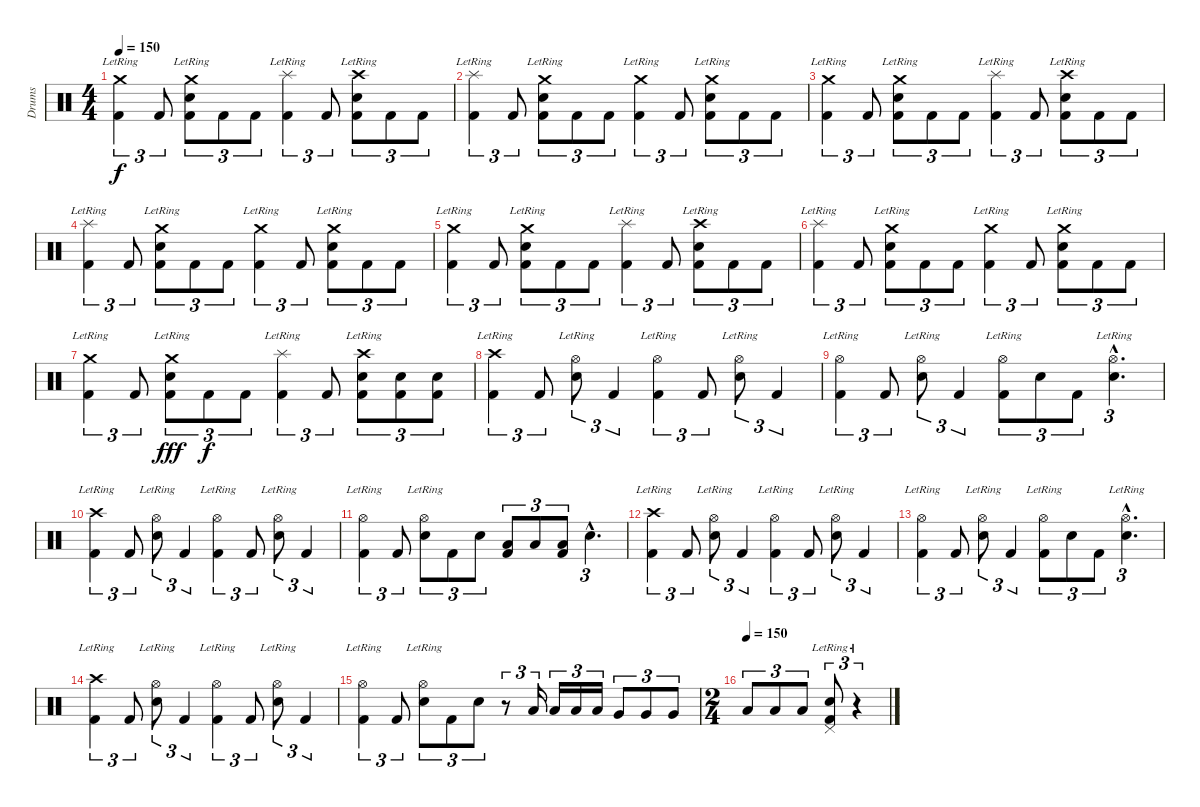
\track ("Drums" "Drums") {instrument percussion}
\staff {score}
\articulation defaults
\ts (4 4)
\tempo 150
\clef neutral
\ks c
("Crash medium (hit)"{lr} "Kick (hit) 2").4{tu (3 2) dy f} "Kick (hit) 2".8{tu (3 2)} ("Crash medium (hit)"{lr} "Snare (hit) 2" "Kick (hit) 2").8{tu (3 2)} "Kick (hit) 2".8{tu (3 2)} "Kick (hit) 2".8{tu (3 2)} ("Splash (hit)"{lr} "Kick (hit) 2").4{tu (3 2)} "Kick (hit) 2".8{tu (3 2)} ("Crash high (hit)"{lr} "Snare (hit) 2" "Kick (hit) 2").8{tu (3 2)} "Kick (hit) 2".8{tu (3 2)} "Kick (hit) 2".8{tu (3 2)} |
("Splash (hit)"{lr} "Kick (hit) 2").4{tu (3 2)} "Kick (hit) 2".8{tu (3 2)} ("Crash medium (hit)"{lr} "Snare (hit) 2" "Kick (hit) 2").8{tu (3 2)} "Kick (hit) 2".8{tu (3 2)} "Kick (hit) 2".8{tu (3 2)} ("Crash medium (hit)"{lr} "Kick (hit) 2").4{tu (3 2)} "Kick (hit) 2".8{tu (3 2)} ("Crash medium (hit)"{lr} "Snare (hit) 2" "Kick (hit) 2").8{tu (3 2)} "Kick (hit) 2".8{tu (3 2)} "Kick (hit) 2".8{tu (3 2)} |
("Crash medium (hit)"{lr} "Kick (hit) 2").4{tu (3 2)} "Kick (hit) 2".8{tu (3 2)} ("Crash medium (hit)"{lr} "Snare (hit) 2" "Kick (hit) 2").8{tu (3 2)} "Kick (hit) 2".8{tu (3 2)} "Kick (hit) 2".8{tu (3 2)} ("Splash (hit)"{lr} "Kick (hit) 2").4{tu (3 2)} "Kick (hit) 2".8{tu (3 2)} ("Crash high (hit)"{lr} "Snare (hit) 2" "Kick (hit) 2").8{tu (3 2)} "Kick (hit) 2".8{tu (3 2)} "Kick (hit) 2".8{tu (3 2)} |
("Splash (hit)"{lr} "Kick (hit) 2").4{tu (3 2)} "Kick (hit) 2".8{tu (3 2)} ("Crash medium (hit)"{lr} "Snare (hit) 2" "Kick (hit) 2").8{tu (3 2)} "Kick (hit) 2".8{tu (3 2)} "Kick (hit) 2".8{tu (3 2)} ("Crash medium (hit)"{lr} "Kick (hit) 2").4{tu (3 2)} "Kick (hit) 2".8{tu (3 2)} ("Crash medium (hit)"{lr} "Snare (hit) 2" "Kick (hit) 2").8{tu (3 2)} "Kick (hit) 2".8{tu (3 2)} "Kick (hit) 2".8{tu (3 2)} |
("Crash medium (hit)"{lr} "Kick (hit) 2").4{tu (3 2)} "Kick (hit) 2".8{tu (3 2)} ("Crash medium (hit)"{lr} "Snare (hit) 2" "Kick (hit) 2").8{tu (3 2)} "Kick (hit) 2".8{tu (3 2)} "Kick (hit) 2".8{tu (3 2)} ("Splash (hit)"{lr} "Kick (hit) 2").4{tu (3 2)} "Kick (hit) 2".8{tu (3 2)} ("Crash high (hit)"{lr} "Snare (hit) 2" "Kick (hit) 2").8{tu (3 2)} "Kick (hit) 2".8{tu (3 2)} "Kick (hit) 2".8{tu (3 2)} |
("Splash (hit)"{lr} "Kick (hit) 2").4{tu (3 2)} "Kick (hit) 2".8{tu (3 2)} ("Crash medium (hit)"{lr} "Snare (hit) 2" "Kick (hit) 2").8{tu (3 2)} "Kick (hit) 2".8{tu (3 2)} "Kick (hit) 2".8{tu (3 2)} ("Crash medium (hit)"{lr} "Kick (hit) 2").4{tu (3 2)} "Kick (hit) 2".8{tu (3 2)} ("Crash medium (hit)"{lr} "Snare (hit) 2" "Kick (hit) 2").8{tu (3 2)} "Kick (hit) 2".8{tu (3 2)} "Kick (hit) 2".8{tu (3 2)} |
("Crash medium (hit)"{lr} "Kick (hit) 2").4{tu (3 2)} "Kick (hit) 2".8{tu (3 2)} ("Crash medium (hit)"{lr} "Snare (hit) 2" "Kick (hit) 2").8{tu (3 2) dy fff} "Kick (hit) 2".8{tu (3 2) dy f} "Kick (hit) 2".8{tu (3 2)} ("Splash (hit)"{lr} "Kick (hit) 2").4{tu (3 2)} "Kick (hit) 2".8{tu (3 2)} ("Crash high (hit)"{lr} "Snare (hit) 2" "Kick (hit) 2").8{tu (3 2)} ("Snare (hit) 2" "Kick (hit) 2").8{tu (3 2)} ("Snare (hit) 2" "Kick (hit) 2").8{tu (3 2)} |
("Crash high (hit)"{lr} "Kick (hit) 2").4{tu (3 2)} "Kick (hit) 2".8{tu (3 2)} ("Hi-Hat (open)"{lr} "Snare (hit) 2").8{tu (3 2)} "Kick (hit) 2".4{tu (3 2)} ("Hi-Hat (open)"{lr} "Kick (hit) 2").4{tu (3 2)} "Kick (hit) 2".8{tu (3 2)} ("Hi-Hat (open)"{lr} "Snare (hit) 2").8{tu (3 2)} "Kick (hit) 2".4{tu (3 2)} |
("Hi-Hat (open)"{lr} "Kick (hit) 2").4{tu (3 2)} "Kick (hit) 2".8{tu (3 2)} ("Hi-Hat (open)"{lr} "Snare (hit) 2").8{tu (3 2)} "Kick (hit) 2".4{tu (3 2)} ("Hi-Hat (open)"{lr} "Kick (hit) 2").8{tu (3 2)} "Snare (hit) 2".8{tu (3 2)} "Kick (hit) 2".8{tu (3 2)} ("Hi-Hat (open)"{hac lr} "Snare (hit) 2"{hac}).4{d tu (3 2)} |
("Crash high (hit)"{lr} "Kick (hit) 2").4{tu (3 2)} "Kick (hit) 2".8{tu (3 2)} ("Hi-Hat (open)"{lr} "Snare (hit) 2").8{tu (3 2)} "Kick (hit) 2".4{tu (3 2)} ("Hi-Hat (open)"{lr} "Kick (hit) 2").4{tu (3 2)} "Kick (hit) 2".8{tu (3 2)} ("Hi-Hat (open)"{lr} "Snare (hit) 2").8{tu (3 2)} "Kick (hit) 2".4{tu (3 2)} |
("Hi-Hat (open)"{lr} "Kick (hit) 2").4{tu (3 2)} "Kick (hit) 2".8{tu (3 2)} ("Hi-Hat (open)"{lr} "Snare (hit) 2").8{tu (3 2)} "Kick (hit) 2".8{tu (3 2)} "Snare (hit) 2".8{tu (3 2)} ("Low Tom (hit)" "Kick (hit) 2").8{tu (3 2)} "Low Tom (hit)".8{tu (3 2)} ("Low Tom (hit)" "Kick (hit) 2").8{tu (3 2)} "Snare (hit) 2"{hac}.4{d tu (3 2)} |
("Crash high (hit)"{lr} "Kick (hit) 2").4{tu (3 2)} "Kick (hit) 2".8{tu (3 2)} ("Hi-Hat (open)"{lr} "Snare (hit) 2").8{tu (3 2)} "Kick (hit) 2".4{tu (3 2)} ("Hi-Hat (open)"{lr} "Kick (hit) 2").4{tu (3 2)} "Kick (hit) 2".8{tu (3 2)} ("Hi-Hat (open)"{lr} "Snare (hit) 2").8{tu (3 2)} "Kick (hit) 2".4{tu (3 2)} |
("Hi-Hat (open)"{lr} "Kick (hit) 2").4{tu (3 2)} "Kick (hit) 2".8{tu (3 2)} ("Hi-Hat (open)"{lr} "Snare (hit) 2").8{tu (3 2)} "Kick (hit) 2".4{tu (3 2)} ("Hi-Hat (open)"{lr} "Kick (hit) 2").8{tu (3 2)} "Snare (hit) 2".8{tu (3 2)} "Kick (hit) 2".8{tu (3 2)} ("Hi-Hat (open)"{hac lr} "Snare (hit) 2"{hac}).4{d tu (3 2)} |
("Crash high (hit)"{lr} "Kick (hit) 2").4{tu (3 2)} "Kick (hit) 2".8{tu (3 2)} ("Hi-Hat (open)"{lr} "Snare (hit) 2").8{tu (3 2)} "Kick (hit) 2".4{tu (3 2)} ("Hi-Hat (open)"{lr} "Kick (hit) 2").4{tu (3 2)} "Kick (hit) 2".8{tu (3 2)} ("Hi-Hat (open)"{lr} "Snare (hit) 2").8{tu (3 2)} "Kick (hit) 2".4{tu (3 2)} |
("Hi-Hat (open)"{lr} "Kick (hit) 2").4{tu (3 2)} "Kick (hit) 2".8{tu (3 2)} ("Hi-Hat (open)"{lr} "Snare (hit) 2").8{tu (3 2)} "Kick (hit) 2".8{tu (3 2)} "Snare (hit) 2".8{tu (3 2)} r.8{tu (3 2)} "Low Tom (hit)".16{tu (3 2)} "Low Tom (hit)".16{tu (3 2)} "Low Tom (hit)".16{tu (3 2)} "Low Tom (hit)".16{tu (3 2)} "Very Low Tom (hit)".8{tu (3 2)} "Very Low Tom (hit)".8{tu (3 2)} "Very Low Tom (hit)".8{tu (3 2)} |
\ts (2 4)
\tempo (150)
"Low Floor Tom (hit)".8{tu (3 2)} "Low Floor Tom (hit)".8{tu (3 2)} "Low Floor Tom (hit)".8{tu (3 2)} ("Pedal Hi-Hat (hit)"{lr} "Snare (hit) 2" "Kick (hit) 2").8{tu (3 2)} r.4{tu (3 2)}
